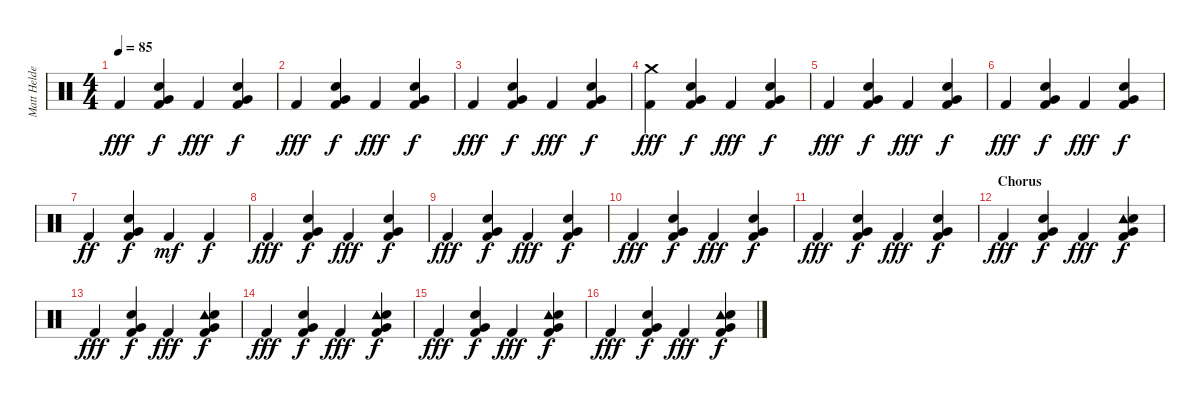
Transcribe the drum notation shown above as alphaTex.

\track ("Matt Helders - Drums" "Matt Helde") {instrument percussion}
\staff {score}
\articulation defaults
\ts (4 4)
\tempo 85
\clef neutral
\ks c "Kick (hit) 2".4{dy fff}
("Kick (hit) 2" "Very Low Tom (hit)" "Hand Clap (hit)").4{dy f} "Kick (hit) 2".4{dy fff} ("Kick (hit) 2" "Very Low Tom (hit)" "Hand Clap (hit)").4{dy f} |
"Kick (hit) 2".4{dy fff} ("Kick (hit) 2" "Very Low Tom (hit)" "Hand Clap (hit)").4{dy f} "Kick (hit) 2".4{dy fff} ("Kick (hit) 2" "Very Low Tom (hit)" "Hand Clap (hit)").4{dy f} |
"Kick (hit) 2".4{dy fff} ("Kick (hit) 2" "Very Low Tom (hit)" "Hand Clap (hit)").4{dy f} "Kick (hit) 2".4{dy fff} ("Kick (hit) 2" "Very Low Tom (hit)" "Hand Clap (hit)").4{dy f} |
("Crash medium (hit)" "Kick (hit) 2").4{dy fff} ("Kick (hit) 2" "Very Low Tom (hit)" "Hand Clap (hit)").4{dy f} "Kick (hit) 2".4{dy fff} ("Kick (hit) 2" "Very Low Tom (hit)" "Hand Clap (hit)").4{dy f} |
"Kick (hit) 2".4{dy fff} ("Kick (hit) 2" "Very Low Tom (hit)" "Hand Clap (hit)").4{dy f} "Kick (hit) 2".4{dy fff} ("Kick (hit) 2" "Very Low Tom (hit)" "Hand Clap (hit)").4{dy f} |
"Kick (hit) 2".4{dy fff} ("Kick (hit) 2" "Very Low Tom (hit)" "Hand Clap (hit)").4{dy f} "Kick (hit) 2".4{dy fff} ("Kick (hit) 2" "Very Low Tom (hit)" "Hand Clap (hit)").4{dy f} |
"Kick (hit) 2".4{dy ff} ("Kick (hit) 2" "Very Low Tom (hit)" "Hand Clap (hit)").4{dy f} "Kick (hit) 2".4{dy mf} "Kick (hit) 2".4{dy f} |
"Kick (hit) 2".4{dy fff} ("Kick (hit) 2" "Very Low Tom (hit)" "Hand Clap (hit)").4{dy f} "Kick (hit) 2".4{dy fff} ("Kick (hit) 2" "Very Low Tom (hit)" "Hand Clap (hit)").4{dy f} |
"Kick (hit) 2".4{dy fff} ("Kick (hit) 2" "Very Low Tom (hit)" "Hand Clap (hit)").4{dy f} "Kick (hit) 2".4{dy fff} ("Kick (hit) 2" "Very Low Tom (hit)" "Hand Clap (hit)").4{dy f} |
"Kick (hit) 2".4{dy fff} ("Kick (hit) 2" "Very Low Tom (hit)" "Hand Clap (hit)").4{dy f} "Kick (hit) 2".4{dy fff} ("Kick (hit) 2" "Very Low Tom (hit)" "Hand Clap (hit)").4{dy f} |
"Kick (hit) 2".4{dy fff} ("Kick (hit) 2" "Very Low Tom (hit)" "Hand Clap (hit)").4{dy f} "Kick (hit) 2".4{dy fff} ("Kick (hit) 2" "Very Low Tom (hit)" "Hand Clap (hit)").4{dy f} |
\section ("" "Chorus")
"Kick (hit) 2".4{dy fff} ("Kick (hit) 2" "Very Low Tom (hit)" "Hand Clap (hit)").4{dy f} "Kick (hit) 2".4{dy fff} ("Kick (hit) 2" "Very Low Tom (hit)" "Tambourine (hit)" "Hand Clap (hit)").4{dy f} |
"Kick (hit) 2".4{dy fff} ("Kick (hit) 2" "Very Low Tom (hit)" "Hand Clap (hit)").4{dy f} "Kick (hit) 2".4{dy fff} ("Kick (hit) 2" "Very Low Tom (hit)" "Tambourine (hit)" "Hand Clap (hit)").4{dy f} |
"Kick (hit) 2".4{dy fff} ("Kick (hit) 2" "Very Low Tom (hit)" "Hand Clap (hit)").4{dy f} "Kick (hit) 2".4{dy fff} ("Kick (hit) 2" "Very Low Tom (hit)" "Tambourine (hit)" "Hand Clap (hit)").4{dy f} |
"Kick (hit) 2".4{dy fff} ("Kick (hit) 2" "Very Low Tom (hit)" "Hand Clap (hit)").4{dy f} "Kick (hit) 2".4{dy fff} ("Kick (hit) 2" "Very Low Tom (hit)" "Tambourine (hit)" "Hand Clap (hit)").4{dy f} |
"Kick (hit) 2".4{dy fff} ("Kick (hit) 2" "Very Low Tom (hit)" "Hand Clap (hit)").4{dy f} "Kick (hit) 2".4{dy fff} ("Kick (hit) 2" "Very Low Tom (hit)" "Tambourine (hit)" "Hand Clap (hit)").4{dy f}
